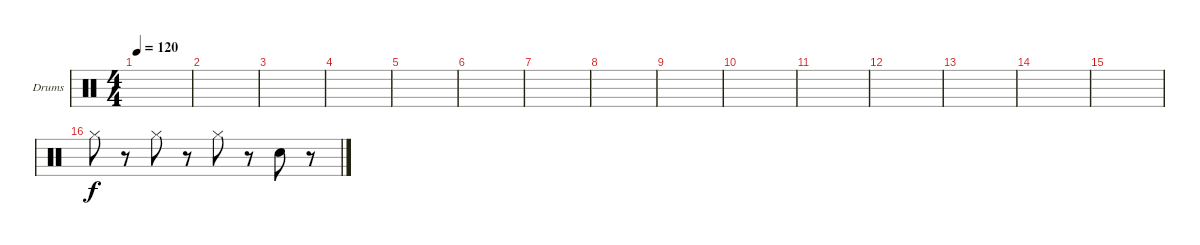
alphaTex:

\defaultSystemsLayout 4
\bracketExtendMode groupsimilarinstruments
\firstSystemTrackNameOrientation horizontal
\otherSystemsTrackNameOrientation horizontal
\track ("Drumkit" "Drums") {instrument percussion}
\staff {score}
\articulation defaults
\ts (4 4)
\tempo 120
\clef neutral
\ks c
|
|
|
|
|
|
|
|
|
|
|
|
|
|
|
"Hi-Hat (closed)".8 r.8 "Hi-Hat (closed)".8 r.8 "Hi-Hat (closed)".8 r.8 "Snare (hit) 2".8{dy f} r.8
